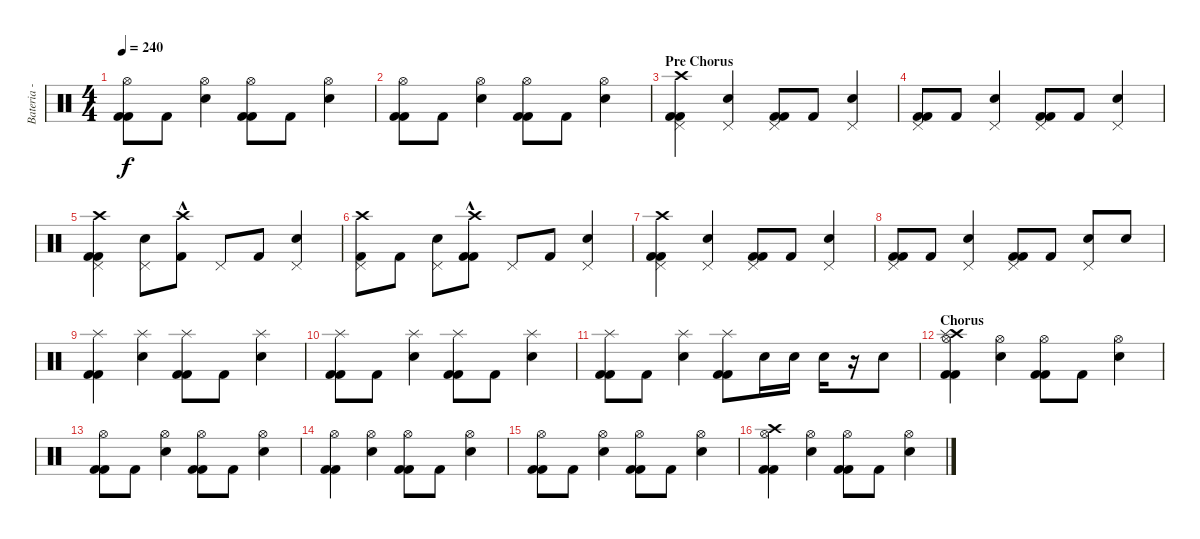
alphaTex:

\track ("Bateria - Larzon" "Bateria - ") {instrument percussion}
\staff {score}
\articulation defaults
\ts (4 4)
\tempo 240
\clef neutral
\ks c
("Kick (hit) 2" "Kick (hit) 2" "Hi-Hat (open)").8{dy f volume 16} "Kick (hit) 2".8 ("Snare (hit) 2" "Hi-Hat (open)").4 ("Kick (hit) 2" "Kick (hit) 2" "Hi-Hat (open)").8{volume 12} "Kick (hit) 2".8 ("Snare (hit) 2" "Hi-Hat (open)").4{volume 12} |
("Kick (hit) 2" "Kick (hit) 2" "Hi-Hat (open)").8{volume 16} "Kick (hit) 2".8 ("Snare (hit) 2" "Hi-Hat (open)").4 ("Kick (hit) 2" "Kick (hit) 2" "Hi-Hat (open)").8{volume 12} "Kick (hit) 2".8 ("Snare (hit) 2" "Hi-Hat (open)").4{volume 12} |
\section ("" "Pre Chorus")
("Pedal Hi-Hat (hit)" "Crash high (hit)" "Kick (hit) 2" "Kick (hit) 2").4 ("Pedal Hi-Hat (hit)" "Snare (hit) 2").4 ("Pedal Hi-Hat (hit)" "Kick (hit) 2" "Kick (hit) 2").8{volume 12} "Kick (hit) 2".8 ("Pedal Hi-Hat (hit)" "Snare (hit) 2").4{volume 12} |
("Pedal Hi-Hat (hit)" "Kick (hit) 2" "Kick (hit) 2").8{volume 16} "Kick (hit) 2".8 ("Pedal Hi-Hat (hit)" "Snare (hit) 2").4 ("Pedal Hi-Hat (hit)" "Kick (hit) 2" "Kick (hit) 2").8{volume 12} "Kick (hit) 2".8 ("Pedal Hi-Hat (hit)" "Snare (hit) 2").4{volume 12} |
("Crash high (hit)" "Pedal Hi-Hat (hit)" "Kick (hit) 2" "Kick (hit) 2").4{volume 16} ("Pedal Hi-Hat (hit)" "Snare (hit) 2").8 ("Crash high (hit)"{hac} "Kick (hit) 2").8 "Pedal Hi-Hat (hit)".8{volume 12} "Kick (hit) 2".8 ("Snare (hit) 2" "Pedal Hi-Hat (hit)").4{volume 12} |
("Crash high (hit)" "Kick (hit) 2" "Pedal Hi-Hat (hit)").8{volume 16} "Kick (hit) 2".8 ("Pedal Hi-Hat (hit)" "Snare (hit) 2").8 ("Crash high (hit)"{hac} "Kick (hit) 2" "Kick (hit) 2").8 "Pedal Hi-Hat (hit)".8{volume 12} "Kick (hit) 2".8 ("Snare (hit) 2" "Pedal Hi-Hat (hit)").4{volume 12} |
("Kick (hit) 2" "Pedal Hi-Hat (hit)" "Crash high (hit)" "Kick (hit) 2").4{volume 16} ("Snare (hit) 2" "Pedal Hi-Hat (hit)").4 ("Pedal Hi-Hat (hit)" "Kick (hit) 2" "Kick (hit) 2").8{volume 12} "Kick (hit) 2".8 ("Snare (hit) 2" "Pedal Hi-Hat (hit)").4{volume 12} |
("Kick (hit) 2" "Pedal Hi-Hat (hit)" "Kick (hit) 2").8{volume 16} "Kick (hit) 2".8 ("Snare (hit) 2" "Pedal Hi-Hat (hit)").4 ("Kick (hit) 2" "Pedal Hi-Hat (hit)" "Kick (hit) 2").8{volume 12} "Kick (hit) 2".8 ("Pedal Hi-Hat (hit)" "Snare (hit) 2").8{volume 12} "Snare (hit) 2".8{volume 16} |
("Kick (hit) 2" "Kick (hit) 2" "Splash (hit)").4 ("Snare (hit) 2" "Splash (hit)").4 ("Kick (hit) 2" "Splash (hit)" "Kick (hit) 2").8{volume 12} "Kick (hit) 2".8 ("Snare (hit) 2" "Splash (hit)").4{volume 12} |
("Kick (hit) 2" "Kick (hit) 2" "Splash (hit)").8{volume 16} "Kick (hit) 2".8 ("Snare (hit) 2" "Splash (hit)").4 ("Kick (hit) 2" "Kick (hit) 2" "Splash (hit)").8{volume 12} "Kick (hit) 2".8 ("Snare (hit) 2" "Splash (hit)").4{volume 12} |
("Kick (hit) 2" "Kick (hit) 2" "Splash (hit)").8{volume 16} "Kick (hit) 2".8 ("Snare (hit) 2" "Splash (hit)").4 ("Kick (hit) 2" "Kick (hit) 2" "Splash (hit)").8 "Snare (hit) 2".16 "Snare (hit) 2".16 "Snare (hit) 2".16 r.16 "Snare (hit) 2".8 |
\section ("" "Chorus")
("Kick (hit) 2" "Kick (hit) 2" "Crash high (hit)" "Splash (hit)" "Hi-Hat (open)").4 ("Snare (hit) 2" "Hi-Hat (open)").4 ("Kick (hit) 2" "Hi-Hat (open)" "Kick (hit) 2").8{volume 12} "Kick (hit) 2".8 ("Snare (hit) 2" "Hi-Hat (open)").4{volume 12} |
("Kick (hit) 2" "Kick (hit) 2" "Hi-Hat (open)").8{volume 16} "Kick (hit) 2".8 ("Snare (hit) 2" "Hi-Hat (open)").4 ("Kick (hit) 2" "Kick (hit) 2" "Hi-Hat (open)").8{volume 12} "Kick (hit) 2".8 ("Snare (hit) 2" "Hi-Hat (open)").4{volume 12} |
("Kick (hit) 2" "Kick (hit) 2" "Hi-Hat (open)").4{volume 16} ("Snare (hit) 2" "Hi-Hat (open)").4 ("Kick (hit) 2" "Hi-Hat (open)" "Kick (hit) 2").8{volume 12} "Kick (hit) 2".8 ("Snare (hit) 2" "Hi-Hat (open)").4{volume 12} |
("Kick (hit) 2" "Kick (hit) 2" "Hi-Hat (open)").8{volume 16} "Kick (hit) 2".8 ("Snare (hit) 2" "Hi-Hat (open)").4 ("Kick (hit) 2" "Kick (hit) 2" "Hi-Hat (open)").8{volume 12} "Kick (hit) 2".8 ("Snare (hit) 2" "Hi-Hat (open)").4{volume 12} |
("Kick (hit) 2" "Kick (hit) 2" "Crash high (hit)" "Hi-Hat (open)").4{volume 16} ("Snare (hit) 2" "Hi-Hat (open)").4 ("Kick (hit) 2" "Hi-Hat (open)" "Kick (hit) 2").8{volume 12} "Kick (hit) 2".8 ("Snare (hit) 2" "Hi-Hat (open)").4{volume 12}
